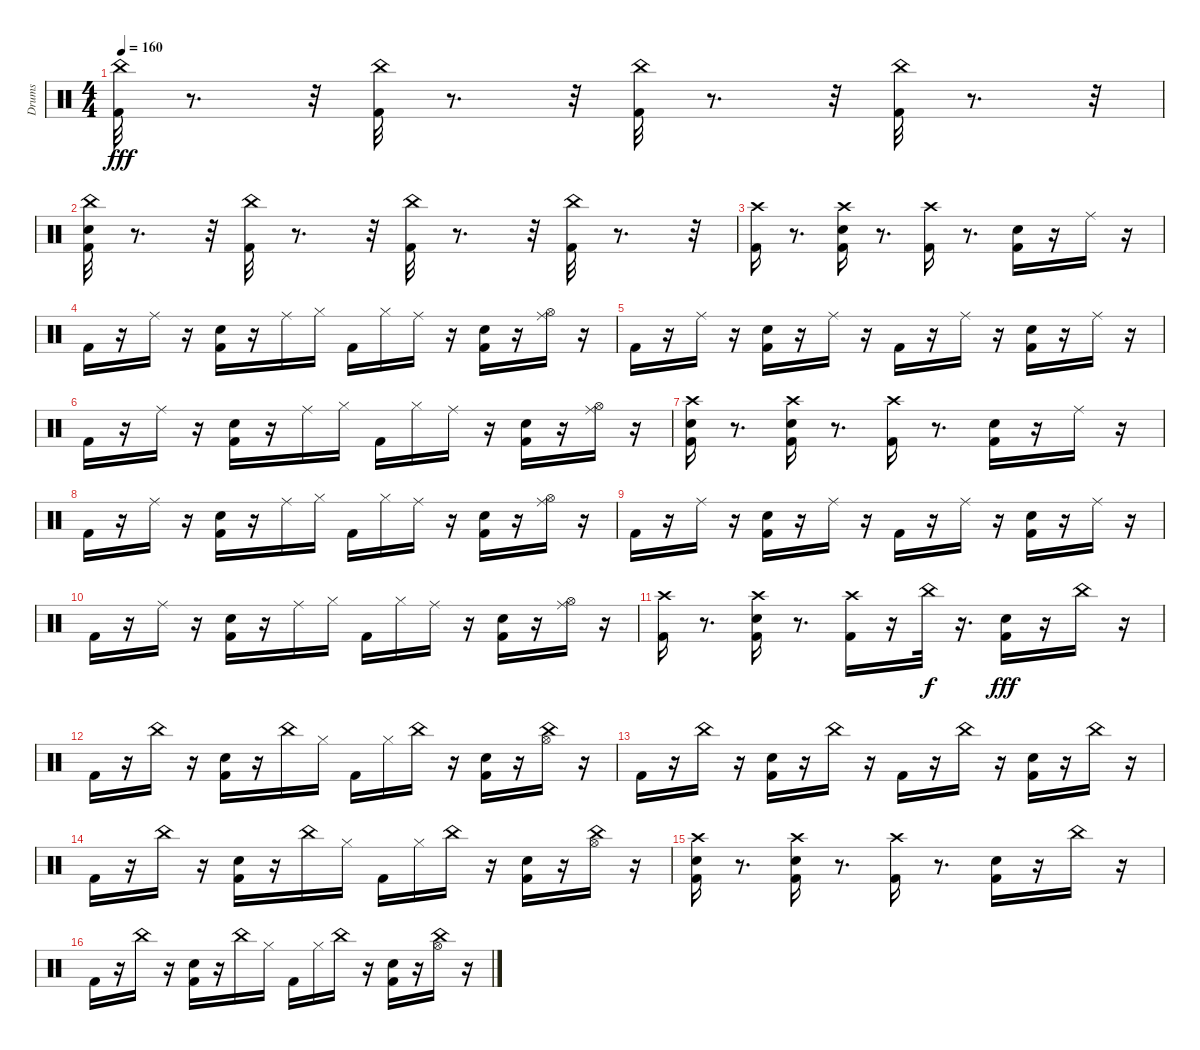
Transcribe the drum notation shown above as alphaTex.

\track ("Drums" "Drums") {instrument percussion}
\staff {score}
\articulation defaults
\ts (4 4)
\tempo 160
\clef neutral
\ks c
("China (hit)" "Kick (hit) 2").32{dy fff} r.8{d} r.32 ("China (hit)" "Kick (hit) 2").32 r.8{d} r.32 ("China (hit)" "Kick (hit) 2").32 r.8{d} r.32 ("China (hit)" "Kick (hit) 2").32 r.8{d} r.32 |
("China (hit)" "Electric Snare (hit)" "Kick (hit) 2").32 r.8{d} r.32 ("China (hit)" "Kick (hit) 2").32 r.8{d} r.32 ("China (hit)" "Kick (hit) 2").32 r.8{d} r.32 ("China (hit)" "Kick (hit) 2").32 r.8{d} r.32 |
("Crash high (hit)" "Kick (hit) 2").16 r.8{d} ("Crash high (hit)" "Electric Snare (hit)" "Kick (hit) 2").16 r.8{d} ("Crash high (hit)" "Kick (hit) 2").16 r.8{d} ("Electric Snare (hit)" "Kick (hit) 2").16 r.16 "Ride (middle)".16 r.16 |
"Kick (hit) 2".16 r.16 "Ride (middle)".16 r.16 ("Electric Snare (hit)" "Kick (hit) 2").16 r.16 "Ride (middle)".16 "Hi-Hat (closed)".16 "Kick (hit) 2".16 "Hi-Hat (closed)".16 "Ride (middle)".16 r.16 ("Electric Snare (hit)" "Kick (hit) 2").16 r.16 ("Ride (middle)" "Hi-Hat (open)").16 r.16 |
"Kick (hit) 2".16 r.16 "Ride (middle)".16 r.16 ("Electric Snare (hit)" "Kick (hit) 2").16 r.16 "Ride (middle)".16 r.16 "Kick (hit) 2".16 r.16 "Ride (middle)".16 r.16 ("Electric Snare (hit)" "Kick (hit) 2").16 r.16 "Ride (middle)".16 r.16 |
"Kick (hit) 2".16 r.16 "Ride (middle)".16 r.16 ("Electric Snare (hit)" "Kick (hit) 2").16 r.16 "Ride (middle)".16 "Hi-Hat (closed)".16 "Kick (hit) 2".16 "Hi-Hat (closed)".16 "Ride (middle)".16 r.16 ("Electric Snare (hit)" "Kick (hit) 2").16 r.16 ("Hi-Hat (open)" "Ride (middle)").16 r.16 |
("Electric Snare (hit)" "Kick (hit) 2" "Crash high (hit)").16 r.8{d} ("Crash high (hit)" "Electric Snare (hit)" "Kick (hit) 2").16 r.8{d} ("Crash high (hit)" "Kick (hit) 2").16 r.8{d} ("Kick (hit) 2" "Electric Snare (hit)").16 r.16 "Ride (middle)".16 r.16 |
"Kick (hit) 2".16 r.16 "Ride (middle)".16 r.16 ("Electric Snare (hit)" "Kick (hit) 2").16 r.16 "Ride (middle)".16 "Hi-Hat (closed)".16 "Kick (hit) 2".16 "Hi-Hat (closed)".16 "Ride (middle)".16 r.16 ("Electric Snare (hit)" "Kick (hit) 2").16 r.16 ("Hi-Hat (open)" "Ride (middle)").16 r.16 |
"Kick (hit) 2".16 r.16 "Ride (middle)".16 r.16 ("Kick (hit) 2" "Electric Snare (hit)").16 r.16 "Ride (middle)".16 r.16 "Kick (hit) 2".16 r.16 "Ride (middle)".16 r.16 ("Electric Snare (hit)" "Kick (hit) 2").16 r.16 "Ride (middle)".16 r.16 |
"Kick (hit) 2".16 r.16 "Ride (middle)".16 r.16 ("Kick (hit) 2" "Electric Snare (hit)").16 r.16 "Ride (middle)".16 "Hi-Hat (closed)".16 "Kick (hit) 2".16 "Hi-Hat (closed)".16 "Ride (middle)".16 r.16 ("Kick (hit) 2" "Electric Snare (hit)").16 r.16 ("Hi-Hat (open)" "Ride (middle)").16 r.16 |
("Crash high (hit)" "Kick (hit) 2").16 r.8{d} ("Crash high (hit)" "Electric Snare (hit)" "Kick (hit) 2").16 r.8{d} ("Crash high (hit)" "Kick (hit) 2").16 r.16 "China (hit)".32{dy f} r.16{d} ("Kick (hit) 2" "Electric Snare (hit)").16{dy fff} r.16 "China (hit)".16 r.16 |
"Kick (hit) 2".16 r.16 "China (hit)".16 r.16 ("Kick (hit) 2" "Electric Snare (hit)").16 r.16 "China (hit)".16 "Hi-Hat (closed)".16 "Kick (hit) 2".16 "Hi-Hat (closed)".16 "China (hit)".16 r.16 ("Electric Snare (hit)" "Kick (hit) 2").16 r.16 ("Hi-Hat (open)" "China (hit)").16 r.16 |
"Kick (hit) 2".16 r.16 "China (hit)".16 r.16 ("Kick (hit) 2" "Electric Snare (hit)").16 r.16 "China (hit)".16 r.16 "Kick (hit) 2".16 r.16 "China (hit)".16 r.16 ("Electric Snare (hit)" "Kick (hit) 2").16 r.16 "China (hit)".16 r.16 |
"Kick (hit) 2".16 r.16 "China (hit)".16 r.16 ("Kick (hit) 2" "Electric Snare (hit)").16 r.16 "China (hit)".16 "Hi-Hat (closed)".16 "Kick (hit) 2".16 "Hi-Hat (closed)".16 "China (hit)".16 r.16 ("Kick (hit) 2" "Electric Snare (hit)").16 r.16 ("Hi-Hat (open)" "China (hit)").16 r.16 |
("Electric Snare (hit)" "Kick (hit) 2" "Crash high (hit)").16 r.8{d} ("Electric Snare (hit)" "Kick (hit) 2" "Crash high (hit)").16 r.8{d} ("Kick (hit) 2" "Crash high (hit)").16 r.8{d} ("Electric Snare (hit)" "Kick (hit) 2").16 r.16 "China (hit)".16 r.16 |
"Kick (hit) 2".16 r.16 "China (hit)".16 r.16 ("Electric Snare (hit)" "Kick (hit) 2").16 r.16 "China (hit)".16 "Hi-Hat (closed)".16 "Kick (hit) 2".16 "Hi-Hat (closed)".16 "China (hit)".16 r.16 ("Kick (hit) 2" "Electric Snare (hit)").16 r.16 ("Hi-Hat (open)" "China (hit)").16 r.16
